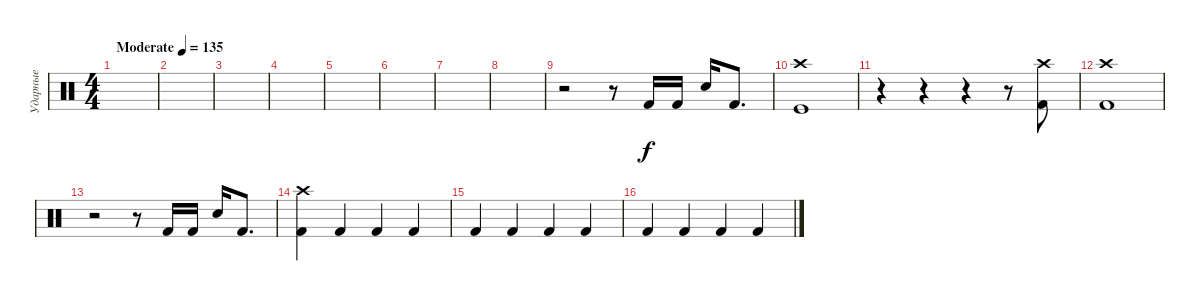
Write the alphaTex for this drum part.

\track ("Ударные" "Ударные") {instrument percussion}
\staff {score}
\articulation defaults
\ts (4 4)
\tempo (135 "Moderate")
\clef neutral
\ks c
|
|
|
|
|
|
|
|
r.2 r.8 "Kick (hit) 2".16 "Kick (hit) 2".16 "Electric Snare (hit)".16 "Kick (hit) 2".8{d} |
("Kick (hit)" "Crash high (hit)").1 |
r.4 r.4 r.4 r.8 ("Crash high (hit)" "Kick (hit) 2").8 |
("Crash high (hit)" "Kick (hit) 2").1 |
r.2 r.8 "Kick (hit) 2".16 "Kick (hit) 2".16 "Electric Snare (hit)".16 "Kick (hit) 2".8{d} |
("Crash high (hit)" "Kick (hit) 2").4 "Kick (hit) 2".4 "Kick (hit) 2".4 "Kick (hit) 2".4 |
"Kick (hit) 2".4 "Kick (hit) 2".4 "Kick (hit) 2".4 "Kick (hit) 2".4 |
"Kick (hit) 2".4 "Kick (hit) 2".4 "Kick (hit) 2".4 "Kick (hit) 2".4
